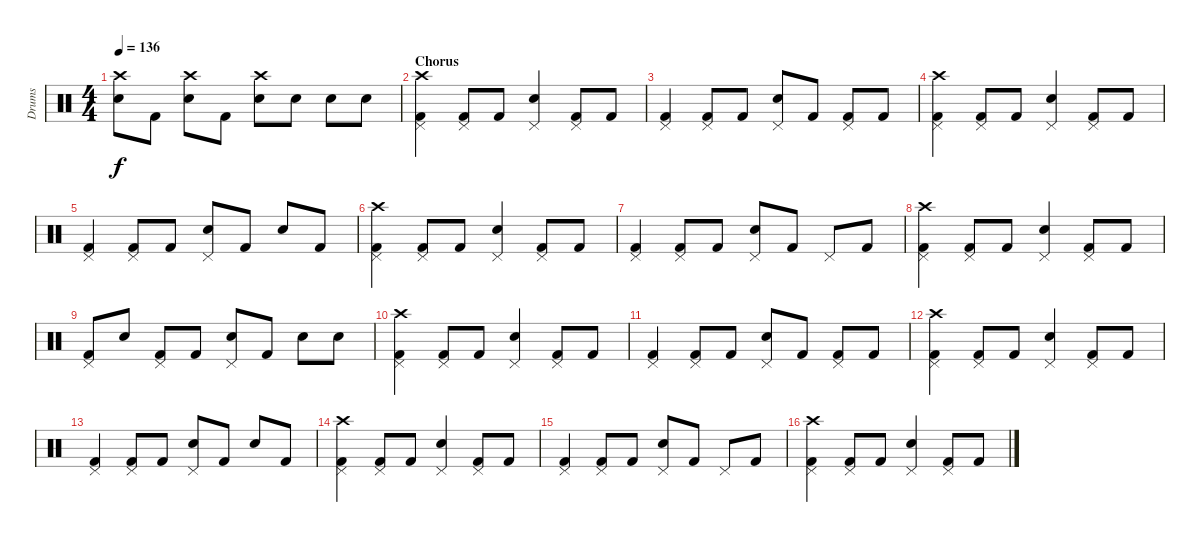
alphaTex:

\track ("Drums" "Drums") {instrument percussion}
\staff {score}
\articulation defaults
\ts (4 4)
\tempo 136
\clef neutral
\ks c
("Crash high (hit)" "Snare (hit) 2").8{dy f} "Kick (hit) 2".8 ("Crash high (hit)" "Snare (hit) 2").8 "Kick (hit) 2".8 ("Crash high (hit)" "Snare (hit) 2").8 "Snare (hit) 2".8 "Snare (hit) 2".8 "Snare (hit) 2".8 |
\section ("" "Chorus")
("Pedal Hi-Hat (hit)" "Crash high (hit)" "Kick (hit) 2").4 ("Pedal Hi-Hat (hit)" "Kick (hit) 2").8 "Kick (hit) 2".8 ("Pedal Hi-Hat (hit)" "Snare (hit) 2").4 ("Pedal Hi-Hat (hit)" "Kick (hit) 2").8 "Kick (hit) 2".8 |
("Pedal Hi-Hat (hit)" "Kick (hit) 2").4 ("Pedal Hi-Hat (hit)" "Kick (hit) 2").8 "Kick (hit) 2".8 ("Pedal Hi-Hat (hit)" "Snare (hit) 2").8 "Kick (hit) 2".8 ("Pedal Hi-Hat (hit)" "Kick (hit) 2").8 "Kick (hit) 2".8 |
("Pedal Hi-Hat (hit)" "Crash high (hit)" "Kick (hit) 2").4 ("Pedal Hi-Hat (hit)" "Kick (hit) 2").8 "Kick (hit) 2".8 ("Pedal Hi-Hat (hit)" "Snare (hit) 2").4 ("Pedal Hi-Hat (hit)" "Kick (hit) 2").8 "Kick (hit) 2".8 |
("Pedal Hi-Hat (hit)" "Kick (hit) 2").4 ("Pedal Hi-Hat (hit)" "Kick (hit) 2").8 "Kick (hit) 2".8 ("Pedal Hi-Hat (hit)" "Snare (hit) 2").8 "Kick (hit) 2".8 "Snare (hit) 2".8 "Kick (hit) 2".8 |
("Pedal Hi-Hat (hit)" "Crash high (hit)" "Kick (hit) 2").4 ("Pedal Hi-Hat (hit)" "Kick (hit) 2").8 "Kick (hit) 2".8 ("Pedal Hi-Hat (hit)" "Snare (hit) 2").4 ("Pedal Hi-Hat (hit)" "Kick (hit) 2").8 "Kick (hit) 2".8 |
("Pedal Hi-Hat (hit)" "Kick (hit) 2").4 ("Pedal Hi-Hat (hit)" "Kick (hit) 2").8 "Kick (hit) 2".8 ("Pedal Hi-Hat (hit)" "Snare (hit) 2").8 "Kick (hit) 2".8 "Pedal Hi-Hat (hit)".8 "Kick (hit) 2".8 |
("Pedal Hi-Hat (hit)" "Crash high (hit)" "Kick (hit) 2").4 ("Pedal Hi-Hat (hit)" "Kick (hit) 2").8 "Kick (hit) 2".8 ("Pedal Hi-Hat (hit)" "Snare (hit) 2").4 ("Pedal Hi-Hat (hit)" "Kick (hit) 2").8 "Kick (hit) 2".8 |
("Pedal Hi-Hat (hit)" "Kick (hit) 2").8 "Snare (hit) 2".8 ("Pedal Hi-Hat (hit)" "Kick (hit) 2").8 "Kick (hit) 2".8 ("Pedal Hi-Hat (hit)" "Snare (hit) 2").8 "Kick (hit) 2".8 "Snare (hit) 2".8 "Snare (hit) 2".8 |
("Pedal Hi-Hat (hit)" "Crash high (hit)" "Kick (hit) 2").4 ("Pedal Hi-Hat (hit)" "Kick (hit) 2").8 "Kick (hit) 2".8 ("Pedal Hi-Hat (hit)" "Snare (hit) 2").4 ("Pedal Hi-Hat (hit)" "Kick (hit) 2").8 "Kick (hit) 2".8 |
("Pedal Hi-Hat (hit)" "Kick (hit) 2").4 ("Pedal Hi-Hat (hit)" "Kick (hit) 2").8 "Kick (hit) 2".8 ("Pedal Hi-Hat (hit)" "Snare (hit) 2").8 "Kick (hit) 2".8 ("Pedal Hi-Hat (hit)" "Kick (hit) 2").8 "Kick (hit) 2".8 |
("Pedal Hi-Hat (hit)" "Crash high (hit)" "Kick (hit) 2").4 ("Pedal Hi-Hat (hit)" "Kick (hit) 2").8 "Kick (hit) 2".8 ("Pedal Hi-Hat (hit)" "Snare (hit) 2").4 ("Pedal Hi-Hat (hit)" "Kick (hit) 2").8 "Kick (hit) 2".8 |
("Pedal Hi-Hat (hit)" "Kick (hit) 2").4 ("Pedal Hi-Hat (hit)" "Kick (hit) 2").8 "Kick (hit) 2".8 ("Pedal Hi-Hat (hit)" "Snare (hit) 2").8 "Kick (hit) 2".8 "Snare (hit) 2".8 "Kick (hit) 2".8 |
("Pedal Hi-Hat (hit)" "Crash high (hit)" "Kick (hit) 2").4 ("Pedal Hi-Hat (hit)" "Kick (hit) 2").8 "Kick (hit) 2".8 ("Pedal Hi-Hat (hit)" "Snare (hit) 2").4 ("Pedal Hi-Hat (hit)" "Kick (hit) 2").8 "Kick (hit) 2".8 |
("Pedal Hi-Hat (hit)" "Kick (hit) 2").4 ("Pedal Hi-Hat (hit)" "Kick (hit) 2").8 "Kick (hit) 2".8 ("Pedal Hi-Hat (hit)" "Snare (hit) 2").8 "Kick (hit) 2".8 "Pedal Hi-Hat (hit)".8 "Kick (hit) 2".8 |
("Pedal Hi-Hat (hit)" "Crash high (hit)" "Kick (hit) 2").4 ("Pedal Hi-Hat (hit)" "Kick (hit) 2").8 "Kick (hit) 2".8 ("Pedal Hi-Hat (hit)" "Snare (hit) 2").4 ("Pedal Hi-Hat (hit)" "Kick (hit) 2").8 "Kick (hit) 2".8
